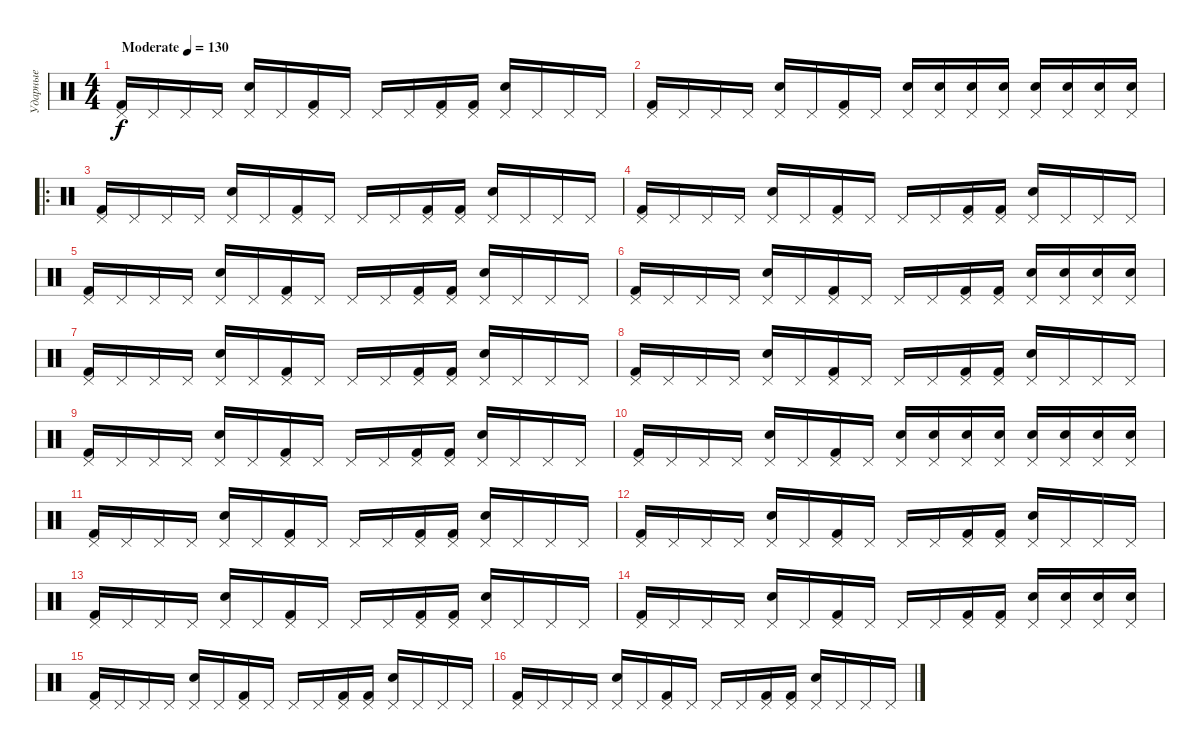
\track ("Ударные" "Ударные") {instrument percussion}
\staff {score}
\articulation defaults
\ts (4 4)
\tempo (130 "Moderate")
\clef neutral
\ks c
("Pedal Hi-Hat (hit)" "Kick (hit) 2").16{dy f} "Pedal Hi-Hat (hit)".16 "Pedal Hi-Hat (hit)".16 "Pedal Hi-Hat (hit)".16 ("Pedal Hi-Hat (hit)" "Electric Snare (hit)").16 "Pedal Hi-Hat (hit)".16 ("Pedal Hi-Hat (hit)" "Kick (hit) 2").16 "Pedal Hi-Hat (hit)".16 "Pedal Hi-Hat (hit)".16 "Pedal Hi-Hat (hit)".16 ("Pedal Hi-Hat (hit)" "Kick (hit) 2").16 ("Pedal Hi-Hat (hit)" "Kick (hit) 2").16 ("Pedal Hi-Hat (hit)" "Electric Snare (hit)").16 "Pedal Hi-Hat (hit)".16 "Pedal Hi-Hat (hit)".16 "Pedal Hi-Hat (hit)".16 |
("Pedal Hi-Hat (hit)" "Kick (hit) 2").16 "Pedal Hi-Hat (hit)".16 "Pedal Hi-Hat (hit)".16 "Pedal Hi-Hat (hit)".16 ("Pedal Hi-Hat (hit)" "Electric Snare (hit)").16 "Pedal Hi-Hat (hit)".16 ("Pedal Hi-Hat (hit)" "Kick (hit) 2").16 "Pedal Hi-Hat (hit)".16 ("Pedal Hi-Hat (hit)" "Electric Snare (hit)").16 ("Pedal Hi-Hat (hit)" "Electric Snare (hit)").16 ("Pedal Hi-Hat (hit)" "Electric Snare (hit)").16 ("Pedal Hi-Hat (hit)" "Electric Snare (hit)").16 ("Pedal Hi-Hat (hit)" "Electric Snare (hit)").16 ("Pedal Hi-Hat (hit)" "Electric Snare (hit)").16 ("Pedal Hi-Hat (hit)" "Electric Snare (hit)").16 ("Pedal Hi-Hat (hit)" "Electric Snare (hit)").16 |
\ro
("Pedal Hi-Hat (hit)" "Kick (hit) 2").16 "Pedal Hi-Hat (hit)".16 "Pedal Hi-Hat (hit)".16 "Pedal Hi-Hat (hit)".16 ("Pedal Hi-Hat (hit)" "Electric Snare (hit)").16 "Pedal Hi-Hat (hit)".16 ("Pedal Hi-Hat (hit)" "Kick (hit) 2").16 "Pedal Hi-Hat (hit)".16 "Pedal Hi-Hat (hit)".16 "Pedal Hi-Hat (hit)".16 ("Pedal Hi-Hat (hit)" "Kick (hit) 2").16 ("Pedal Hi-Hat (hit)" "Kick (hit) 2").16 ("Pedal Hi-Hat (hit)" "Electric Snare (hit)").16 "Pedal Hi-Hat (hit)".16 "Pedal Hi-Hat (hit)".16 "Pedal Hi-Hat (hit)".16 |
("Pedal Hi-Hat (hit)" "Kick (hit) 2").16 "Pedal Hi-Hat (hit)".16 "Pedal Hi-Hat (hit)".16 "Pedal Hi-Hat (hit)".16 ("Pedal Hi-Hat (hit)" "Electric Snare (hit)").16 "Pedal Hi-Hat (hit)".16 ("Pedal Hi-Hat (hit)" "Kick (hit) 2").16 "Pedal Hi-Hat (hit)".16 "Pedal Hi-Hat (hit)".16 "Pedal Hi-Hat (hit)".16 ("Pedal Hi-Hat (hit)" "Kick (hit) 2").16 ("Pedal Hi-Hat (hit)" "Kick (hit) 2").16 ("Pedal Hi-Hat (hit)" "Electric Snare (hit)").16 "Pedal Hi-Hat (hit)".16 "Pedal Hi-Hat (hit)".16 "Pedal Hi-Hat (hit)".16 |
("Pedal Hi-Hat (hit)" "Kick (hit) 2").16 "Pedal Hi-Hat (hit)".16 "Pedal Hi-Hat (hit)".16 "Pedal Hi-Hat (hit)".16 ("Pedal Hi-Hat (hit)" "Electric Snare (hit)").16 "Pedal Hi-Hat (hit)".16 ("Pedal Hi-Hat (hit)" "Kick (hit) 2").16 "Pedal Hi-Hat (hit)".16 "Pedal Hi-Hat (hit)".16 "Pedal Hi-Hat (hit)".16 ("Pedal Hi-Hat (hit)" "Kick (hit) 2").16 ("Pedal Hi-Hat (hit)" "Kick (hit) 2").16 ("Pedal Hi-Hat (hit)" "Electric Snare (hit)").16 "Pedal Hi-Hat (hit)".16 "Pedal Hi-Hat (hit)".16 "Pedal Hi-Hat (hit)".16 |
("Pedal Hi-Hat (hit)" "Kick (hit) 2").16 "Pedal Hi-Hat (hit)".16 "Pedal Hi-Hat (hit)".16 "Pedal Hi-Hat (hit)".16 ("Pedal Hi-Hat (hit)" "Electric Snare (hit)").16 "Pedal Hi-Hat (hit)".16 ("Pedal Hi-Hat (hit)" "Kick (hit) 2").16 "Pedal Hi-Hat (hit)".16 "Pedal Hi-Hat (hit)".16 "Pedal Hi-Hat (hit)".16 ("Pedal Hi-Hat (hit)" "Kick (hit) 2").16 ("Pedal Hi-Hat (hit)" "Kick (hit) 2").16 ("Pedal Hi-Hat (hit)" "Electric Snare (hit)").16 ("Pedal Hi-Hat (hit)" "Electric Snare (hit)").16 ("Pedal Hi-Hat (hit)" "Electric Snare (hit)").16 ("Pedal Hi-Hat (hit)" "Electric Snare (hit)").16 |
("Pedal Hi-Hat (hit)" "Kick (hit) 2").16 "Pedal Hi-Hat (hit)".16 "Pedal Hi-Hat (hit)".16 "Pedal Hi-Hat (hit)".16 ("Pedal Hi-Hat (hit)" "Electric Snare (hit)").16 "Pedal Hi-Hat (hit)".16 ("Pedal Hi-Hat (hit)" "Kick (hit) 2").16 "Pedal Hi-Hat (hit)".16 "Pedal Hi-Hat (hit)".16 "Pedal Hi-Hat (hit)".16 ("Pedal Hi-Hat (hit)" "Kick (hit) 2").16 ("Pedal Hi-Hat (hit)" "Kick (hit) 2").16 ("Pedal Hi-Hat (hit)" "Electric Snare (hit)").16 "Pedal Hi-Hat (hit)".16 "Pedal Hi-Hat (hit)".16 "Pedal Hi-Hat (hit)".16 |
("Pedal Hi-Hat (hit)" "Kick (hit) 2").16 "Pedal Hi-Hat (hit)".16 "Pedal Hi-Hat (hit)".16 "Pedal Hi-Hat (hit)".16 ("Pedal Hi-Hat (hit)" "Electric Snare (hit)").16 "Pedal Hi-Hat (hit)".16 ("Pedal Hi-Hat (hit)" "Kick (hit) 2").16 "Pedal Hi-Hat (hit)".16 "Pedal Hi-Hat (hit)".16 "Pedal Hi-Hat (hit)".16 ("Pedal Hi-Hat (hit)" "Kick (hit) 2").16 ("Pedal Hi-Hat (hit)" "Kick (hit) 2").16 ("Pedal Hi-Hat (hit)" "Electric Snare (hit)").16 "Pedal Hi-Hat (hit)".16 "Pedal Hi-Hat (hit)".16 "Pedal Hi-Hat (hit)".16 |
("Pedal Hi-Hat (hit)" "Kick (hit) 2").16 "Pedal Hi-Hat (hit)".16 "Pedal Hi-Hat (hit)".16 "Pedal Hi-Hat (hit)".16 ("Pedal Hi-Hat (hit)" "Electric Snare (hit)").16 "Pedal Hi-Hat (hit)".16 ("Pedal Hi-Hat (hit)" "Kick (hit) 2").16 "Pedal Hi-Hat (hit)".16 "Pedal Hi-Hat (hit)".16 "Pedal Hi-Hat (hit)".16 ("Pedal Hi-Hat (hit)" "Kick (hit) 2").16 ("Pedal Hi-Hat (hit)" "Kick (hit) 2").16 ("Pedal Hi-Hat (hit)" "Electric Snare (hit)").16 "Pedal Hi-Hat (hit)".16 "Pedal Hi-Hat (hit)".16 "Pedal Hi-Hat (hit)".16 |
("Pedal Hi-Hat (hit)" "Kick (hit) 2").16 "Pedal Hi-Hat (hit)".16 "Pedal Hi-Hat (hit)".16 "Pedal Hi-Hat (hit)".16 ("Pedal Hi-Hat (hit)" "Electric Snare (hit)").16 "Pedal Hi-Hat (hit)".16 ("Pedal Hi-Hat (hit)" "Kick (hit) 2").16 "Pedal Hi-Hat (hit)".16 ("Pedal Hi-Hat (hit)" "Electric Snare (hit)").16 ("Pedal Hi-Hat (hit)" "Electric Snare (hit)").16 ("Pedal Hi-Hat (hit)" "Electric Snare (hit)").16 ("Pedal Hi-Hat (hit)" "Electric Snare (hit)").16 ("Pedal Hi-Hat (hit)" "Electric Snare (hit)").16 ("Pedal Hi-Hat (hit)" "Electric Snare (hit)").16 ("Pedal Hi-Hat (hit)" "Electric Snare (hit)").16 ("Pedal Hi-Hat (hit)" "Electric Snare (hit)").16 |
("Pedal Hi-Hat (hit)" "Kick (hit) 2").16 "Pedal Hi-Hat (hit)".16 "Pedal Hi-Hat (hit)".16 "Pedal Hi-Hat (hit)".16 ("Pedal Hi-Hat (hit)" "Electric Snare (hit)").16 "Pedal Hi-Hat (hit)".16 ("Pedal Hi-Hat (hit)" "Kick (hit) 2").16 "Pedal Hi-Hat (hit)".16 "Pedal Hi-Hat (hit)".16 "Pedal Hi-Hat (hit)".16 ("Pedal Hi-Hat (hit)" "Kick (hit) 2").16 ("Pedal Hi-Hat (hit)" "Kick (hit) 2").16 ("Pedal Hi-Hat (hit)" "Electric Snare (hit)").16 "Pedal Hi-Hat (hit)".16 "Pedal Hi-Hat (hit)".16 "Pedal Hi-Hat (hit)".16 |
("Pedal Hi-Hat (hit)" "Kick (hit) 2").16 "Pedal Hi-Hat (hit)".16 "Pedal Hi-Hat (hit)".16 "Pedal Hi-Hat (hit)".16 ("Pedal Hi-Hat (hit)" "Electric Snare (hit)").16 "Pedal Hi-Hat (hit)".16 ("Pedal Hi-Hat (hit)" "Kick (hit) 2").16 "Pedal Hi-Hat (hit)".16 "Pedal Hi-Hat (hit)".16 "Pedal Hi-Hat (hit)".16 ("Pedal Hi-Hat (hit)" "Kick (hit) 2").16 ("Pedal Hi-Hat (hit)" "Kick (hit) 2").16 ("Pedal Hi-Hat (hit)" "Electric Snare (hit)").16 "Pedal Hi-Hat (hit)".16 "Pedal Hi-Hat (hit)".16 "Pedal Hi-Hat (hit)".16 |
("Pedal Hi-Hat (hit)" "Kick (hit) 2").16 "Pedal Hi-Hat (hit)".16 "Pedal Hi-Hat (hit)".16 "Pedal Hi-Hat (hit)".16 ("Pedal Hi-Hat (hit)" "Electric Snare (hit)").16 "Pedal Hi-Hat (hit)".16 ("Pedal Hi-Hat (hit)" "Kick (hit) 2").16 "Pedal Hi-Hat (hit)".16 "Pedal Hi-Hat (hit)".16 "Pedal Hi-Hat (hit)".16 ("Pedal Hi-Hat (hit)" "Kick (hit) 2").16 ("Pedal Hi-Hat (hit)" "Kick (hit) 2").16 ("Pedal Hi-Hat (hit)" "Electric Snare (hit)").16 "Pedal Hi-Hat (hit)".16 "Pedal Hi-Hat (hit)".16 "Pedal Hi-Hat (hit)".16 |
("Pedal Hi-Hat (hit)" "Kick (hit) 2").16 "Pedal Hi-Hat (hit)".16 "Pedal Hi-Hat (hit)".16 "Pedal Hi-Hat (hit)".16 ("Pedal Hi-Hat (hit)" "Electric Snare (hit)").16 "Pedal Hi-Hat (hit)".16 ("Pedal Hi-Hat (hit)" "Kick (hit) 2").16 "Pedal Hi-Hat (hit)".16 "Pedal Hi-Hat (hit)".16 "Pedal Hi-Hat (hit)".16 ("Pedal Hi-Hat (hit)" "Kick (hit) 2").16 ("Pedal Hi-Hat (hit)" "Kick (hit) 2").16 ("Pedal Hi-Hat (hit)" "Electric Snare (hit)").16 ("Pedal Hi-Hat (hit)" "Electric Snare (hit)").16 ("Pedal Hi-Hat (hit)" "Electric Snare (hit)").16 ("Pedal Hi-Hat (hit)" "Electric Snare (hit)").16 |
("Pedal Hi-Hat (hit)" "Kick (hit) 2").16 "Pedal Hi-Hat (hit)".16 "Pedal Hi-Hat (hit)".16 "Pedal Hi-Hat (hit)".16 ("Pedal Hi-Hat (hit)" "Electric Snare (hit)").16 "Pedal Hi-Hat (hit)".16 ("Pedal Hi-Hat (hit)" "Kick (hit) 2").16 "Pedal Hi-Hat (hit)".16 "Pedal Hi-Hat (hit)".16 "Pedal Hi-Hat (hit)".16 ("Pedal Hi-Hat (hit)" "Kick (hit) 2").16 ("Pedal Hi-Hat (hit)" "Kick (hit) 2").16 ("Pedal Hi-Hat (hit)" "Electric Snare (hit)").16 "Pedal Hi-Hat (hit)".16 "Pedal Hi-Hat (hit)".16 "Pedal Hi-Hat (hit)".16 |
("Pedal Hi-Hat (hit)" "Kick (hit) 2").16 "Pedal Hi-Hat (hit)".16 "Pedal Hi-Hat (hit)".16 "Pedal Hi-Hat (hit)".16 ("Pedal Hi-Hat (hit)" "Electric Snare (hit)").16 "Pedal Hi-Hat (hit)".16 ("Pedal Hi-Hat (hit)" "Kick (hit) 2").16 "Pedal Hi-Hat (hit)".16 "Pedal Hi-Hat (hit)".16 "Pedal Hi-Hat (hit)".16 ("Pedal Hi-Hat (hit)" "Kick (hit) 2").16 ("Pedal Hi-Hat (hit)" "Kick (hit) 2").16 ("Pedal Hi-Hat (hit)" "Electric Snare (hit)").16 "Pedal Hi-Hat (hit)".16 "Pedal Hi-Hat (hit)".16 "Pedal Hi-Hat (hit)".16
